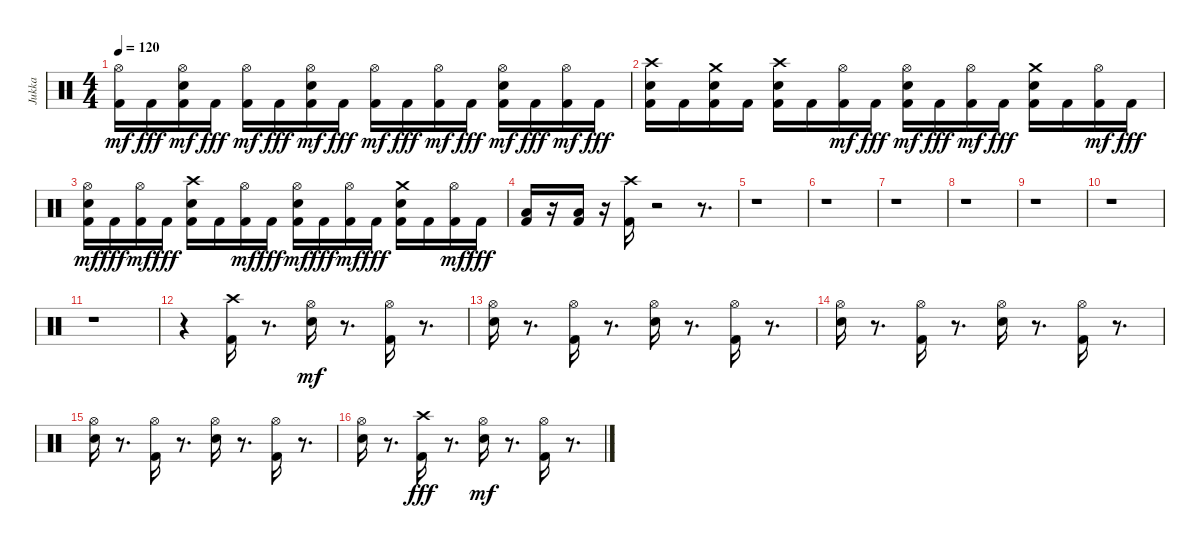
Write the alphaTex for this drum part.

\track ("Jukka" "Jukka") {instrument percussion}
\staff {score}
\articulation defaults
\ts (4 4)
\tempo 120
\clef neutral
\ks c
("Kick (hit) 2" "Hi-Hat (open)").16{dy mf} "Kick (hit) 2".16{dy fff} ("Kick (hit) 2" "Electric Snare (hit)" "Hi-Hat (open)").16{dy mf} "Kick (hit) 2".16{dy fff} ("Kick (hit) 2" "Hi-Hat (open)").16{dy mf} "Kick (hit) 2".16{dy fff} ("Kick (hit) 2" "Electric Snare (hit)" "Hi-Hat (open)").16{dy mf} "Kick (hit) 2".16{dy fff} ("Kick (hit) 2" "Hi-Hat (open)").16{dy mf} "Kick (hit) 2".16{dy fff} ("Kick (hit) 2" "Hi-Hat (open)").16{dy mf} "Kick (hit) 2".16{dy fff} ("Kick (hit) 2" "Electric Snare (hit)" "Hi-Hat (open)").16{dy mf} "Kick (hit) 2".16{dy fff} ("Kick (hit) 2" "Hi-Hat (open)").16{dy mf} "Kick (hit) 2".16{dy fff} |
("Kick (hit) 2" "Electric Snare (hit)" "Crash high (hit)").16 "Kick (hit) 2".16 ("Kick (hit) 2" "Electric Snare (hit)" "Crash medium (hit)").16 "Kick (hit) 2".16 ("Kick (hit) 2" "Electric Snare (hit)" "Crash high (hit)").16 "Kick (hit) 2".16 ("Kick (hit) 2" "Hi-Hat (open)").16{dy mf} "Kick (hit) 2".16{dy fff} ("Kick (hit) 2" "Electric Snare (hit)" "Hi-Hat (open)").16{dy mf} "Kick (hit) 2".16{dy fff} ("Kick (hit) 2" "Hi-Hat (open)").16{dy mf} "Kick (hit) 2".16{dy fff} ("Kick (hit) 2" "Electric Snare (hit)" "Crash medium (hit)").16 "Kick (hit) 2".16 ("Kick (hit) 2" "Hi-Hat (open)").16{dy mf} "Kick (hit) 2".16{dy fff} |
("Kick (hit) 2" "Electric Snare (hit)" "Hi-Hat (open)").16{dy mf} "Kick (hit) 2".16{dy fff} ("Kick (hit) 2" "Hi-Hat (open)").16{dy mf} "Kick (hit) 2".16{dy fff} ("Kick (hit) 2" "Electric Snare (hit)" "Crash high (hit)").16 "Kick (hit) 2".16 ("Kick (hit) 2" "Hi-Hat (open)").16{dy mf} "Kick (hit) 2".16{dy fff} ("Kick (hit) 2" "Electric Snare (hit)" "Hi-Hat (open)").16{dy mf} "Kick (hit) 2".16{dy fff} ("Kick (hit) 2" "Hi-Hat (open)").16{dy mf} "Kick (hit) 2".16{dy fff} ("Kick (hit) 2" "Electric Snare (hit)" "Crash medium (hit)").16 "Kick (hit) 2".16 ("Kick (hit) 2" "Hi-Hat (open)").16{dy mf} "Kick (hit) 2".16{dy fff} |
("Kick (hit) 2" "Low Floor Tom (hit)").16 r.16 ("Kick (hit) 2" "Low Floor Tom (hit)").16 r.16 ("Kick (hit) 2" "Crash high (hit)").16 r.2 r.8{d} |
r.1 |
r.1 |
r.1 |
r.1 |
r.1 |
r.1 |
r.1 |
r.4 ("Kick (hit) 2" "Crash high (hit)").16 r.8{d} ("Electric Snare (hit)" "Hi-Hat (open)").16{dy mf} r.8{d} ("Kick (hit) 2" "Hi-Hat (open)").16 r.8{d} |
("Electric Snare (hit)" "Hi-Hat (open)").16 r.8{d} ("Kick (hit) 2" "Hi-Hat (open)").16 r.8{d} ("Electric Snare (hit)" "Hi-Hat (open)").16 r.8{d} ("Kick (hit) 2" "Hi-Hat (open)").16 r.8{d} |
("Electric Snare (hit)" "Hi-Hat (open)").16 r.8{d} ("Kick (hit) 2" "Hi-Hat (open)").16 r.8{d} ("Electric Snare (hit)" "Hi-Hat (open)").16 r.8{d} ("Kick (hit) 2" "Hi-Hat (open)").16 r.8{d} |
("Electric Snare (hit)" "Hi-Hat (open)").16 r.8{d} ("Kick (hit) 2" "Hi-Hat (open)").16 r.8{d} ("Electric Snare (hit)" "Hi-Hat (open)").16 r.8{d} ("Kick (hit) 2" "Hi-Hat (open)").16 r.8{d} |
("Electric Snare (hit)" "Hi-Hat (open)").16 r.8{d} ("Kick (hit) 2" "Crash high (hit)").16{dy fff} r.8{d} ("Electric Snare (hit)" "Hi-Hat (open)").16{dy mf} r.8{d} ("Kick (hit) 2" "Hi-Hat (open)").16 r.8{d}
